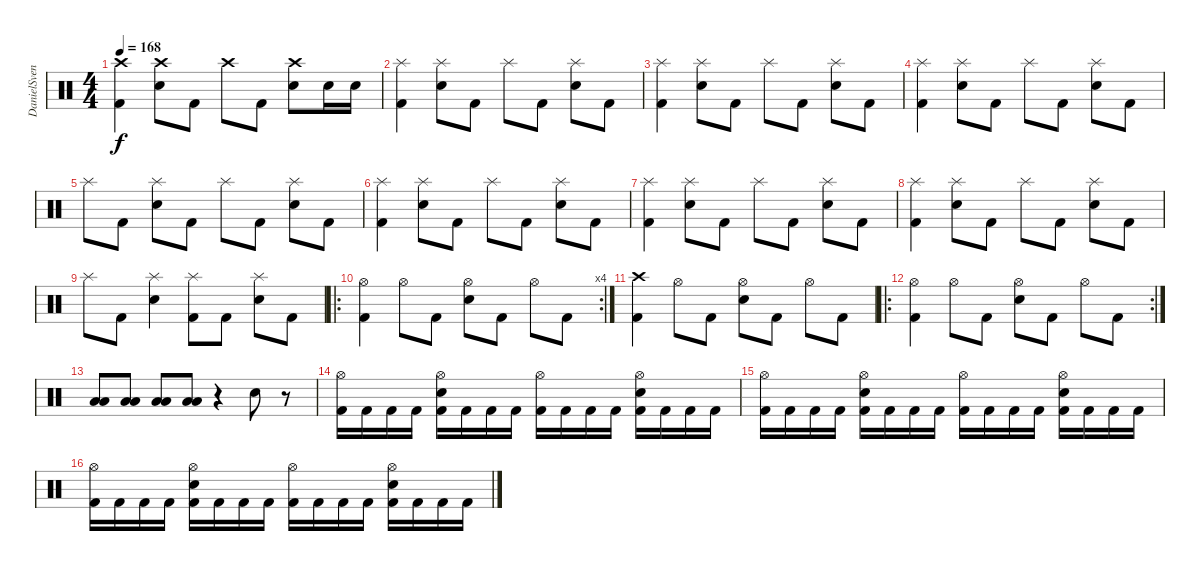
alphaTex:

\track ("DanielSvensson" "DanielSven") {instrument percussion}
\staff {score}
\articulation defaults
\ts (4 4)
\tempo 168
\clef neutral
\ks c
("Crash high (hit)" "Kick (hit) 2").4{dy f} ("Crash high (hit)" "Electric Snare (hit)").8 "Kick (hit) 2".8 "Crash high (hit)".8 "Kick (hit) 2".8 ("Crash high (hit)" "Electric Snare (hit)").8 "Electric Snare (hit)".16 "Electric Snare (hit)".16 |
("Splash (hit)" "Kick (hit) 2").4 ("Splash (hit)" "Electric Snare (hit)").8 "Kick (hit) 2".8 "Splash (hit)".8 "Kick (hit) 2".8 ("Splash (hit)" "Electric Snare (hit)").8 "Kick (hit) 2".8 |
("Splash (hit)" "Kick (hit) 2").4 ("Splash (hit)" "Electric Snare (hit)").8 "Kick (hit) 2".8 "Splash (hit)".8 "Kick (hit) 2".8 ("Splash (hit)" "Electric Snare (hit)").8 "Kick (hit) 2".8 |
("Splash (hit)" "Kick (hit) 2").4 ("Splash (hit)" "Electric Snare (hit)").8 "Kick (hit) 2".8 "Splash (hit)".8 "Kick (hit) 2".8 ("Splash (hit)" "Electric Snare (hit)").8 "Kick (hit) 2".8 |
"Splash (hit)".8 "Kick (hit) 2".8 ("Splash (hit)" "Electric Snare (hit)").8 "Kick (hit) 2".8 "Splash (hit)".8 "Kick (hit) 2".8 ("Splash (hit)" "Electric Snare (hit)").8 "Kick (hit) 2".8 |
("Splash (hit)" "Kick (hit) 2").4 ("Splash (hit)" "Electric Snare (hit)").8 "Kick (hit) 2".8 "Splash (hit)".8 "Kick (hit) 2".8 ("Splash (hit)" "Electric Snare (hit)").8 "Kick (hit) 2".8 |
("Splash (hit)" "Kick (hit) 2").4 ("Splash (hit)" "Electric Snare (hit)").8 "Kick (hit) 2".8 "Splash (hit)".8 "Kick (hit) 2".8 ("Splash (hit)" "Electric Snare (hit)").8 "Kick (hit) 2".8 |
("Splash (hit)" "Kick (hit) 2").4 ("Splash (hit)" "Electric Snare (hit)").8 "Kick (hit) 2".8 "Splash (hit)".8 "Kick (hit) 2".8 ("Splash (hit)" "Electric Snare (hit)").8 "Kick (hit) 2".8 |
"Splash (hit)".8 "Kick (hit) 2".8 ("Splash (hit)" "Electric Snare (hit)").4 ("Splash (hit)" "Kick (hit) 2").8 "Kick (hit) 2".8 ("Splash (hit)" "Electric Snare (hit)").8 "Kick (hit) 2".8 |
\ro
\rc 4
("Hi-Hat (open)" "Kick (hit) 2").4 "Hi-Hat (open)".8 "Kick (hit) 2".8 ("Hi-Hat (open)" "Electric Snare (hit)").8 "Kick (hit) 2".8 "Hi-Hat (open)".8 "Kick (hit) 2".8 |
("Crash high (hit)" "Kick (hit) 2").4 "Hi-Hat (open)".8 "Kick (hit) 2".8 ("Hi-Hat (open)" "Electric Snare (hit)").8 "Kick (hit) 2".8 "Hi-Hat (open)".8 "Kick (hit) 2".8 |
\ro
\rc 2
("Hi-Hat (open)" "Kick (hit) 2").4 "Hi-Hat (open)".8 "Kick (hit) 2".8 ("Hi-Hat (open)" "Electric Snare (hit)").8 "Kick (hit) 2".8 "Hi-Hat (open)".8 "Kick (hit) 2".8 |
("Low Floor Tom (hit)" "Low Tom (hit)").8 ("Low Floor Tom (hit)" "Low Tom (hit)").8 ("Low Floor Tom (hit)" "Low Tom (hit)").8 ("Low Floor Tom (hit)" "Low Tom (hit)").8 r.4 "Electric Snare (hit)".8 r.8 |
("Hi-Hat (open)" "Kick (hit) 2").16 "Kick (hit) 2".16 "Kick (hit) 2".16 "Kick (hit) 2".16 ("Hi-Hat (open)" "Electric Snare (hit)" "Kick (hit) 2").16 "Kick (hit) 2".16 "Kick (hit) 2".16 "Kick (hit) 2".16 ("Hi-Hat (open)" "Kick (hit) 2").16 "Kick (hit) 2".16 "Kick (hit) 2".16 "Kick (hit) 2".16 ("Hi-Hat (open)" "Electric Snare (hit)" "Kick (hit) 2").16 "Kick (hit) 2".16 "Kick (hit) 2".16 "Kick (hit) 2".16 |
("Hi-Hat (open)" "Kick (hit) 2").16 "Kick (hit) 2".16 "Kick (hit) 2".16 "Kick (hit) 2".16 ("Hi-Hat (open)" "Electric Snare (hit)" "Kick (hit) 2").16 "Kick (hit) 2".16 "Kick (hit) 2".16 "Kick (hit) 2".16 ("Hi-Hat (open)" "Kick (hit) 2").16 "Kick (hit) 2".16 "Kick (hit) 2".16 "Kick (hit) 2".16 ("Hi-Hat (open)" "Electric Snare (hit)" "Kick (hit) 2").16 "Kick (hit) 2".16 "Kick (hit) 2".16 "Kick (hit) 2".16 |
("Hi-Hat (open)" "Kick (hit) 2").16 "Kick (hit) 2".16 "Kick (hit) 2".16 "Kick (hit) 2".16 ("Hi-Hat (open)" "Electric Snare (hit)" "Kick (hit) 2").16 "Kick (hit) 2".16 "Kick (hit) 2".16 "Kick (hit) 2".16 ("Hi-Hat (open)" "Kick (hit) 2").16 "Kick (hit) 2".16 "Kick (hit) 2".16 "Kick (hit) 2".16 ("Hi-Hat (open)" "Electric Snare (hit)" "Kick (hit) 2").16 "Kick (hit) 2".16 "Kick (hit) 2".16 "Kick (hit) 2".16
